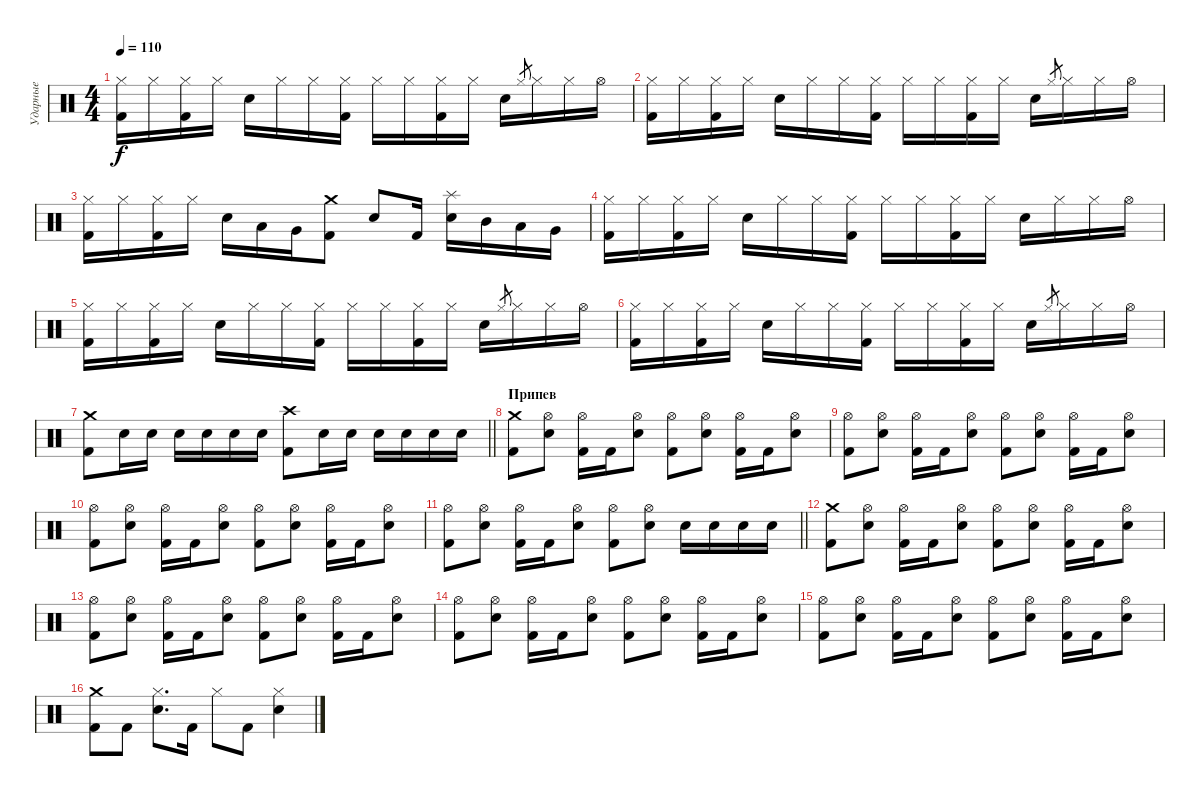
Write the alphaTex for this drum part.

\track ("Ударные" "Ударные") {instrument percussion}
\staff {score}
\articulation defaults
\ts (4 4)
\tempo 110
\clef neutral
\ks c
("Hi-Hat (closed)" "Kick (hit) 2").16{dy f} "Hi-Hat (closed)".16 ("Hi-Hat (closed)" "Kick (hit) 2").16 "Hi-Hat (closed)".16 "Snare (hit) 2".16 "Hi-Hat (closed)".16 "Hi-Hat (closed)".16 ("Hi-Hat (closed)" "Kick (hit) 2").16 "Hi-Hat (closed)".16 "Hi-Hat (closed)".16 ("Hi-Hat (closed)" "Kick (hit) 2").16 "Hi-Hat (closed)".16 "Snare (hit) 2".16 "Hi-Hat (closed)".8{gr} "Hi-Hat (closed)".16 "Hi-Hat (closed)".16 "Hi-Hat (open)".16 |
("Hi-Hat (closed)" "Kick (hit) 2").16 "Hi-Hat (closed)".16 ("Hi-Hat (closed)" "Kick (hit) 2").16 "Hi-Hat (closed)".16 "Snare (hit) 2".16 "Hi-Hat (closed)".16 "Hi-Hat (closed)".16 ("Hi-Hat (closed)" "Kick (hit) 2").16 "Hi-Hat (closed)".16 "Hi-Hat (closed)".16 ("Hi-Hat (closed)" "Kick (hit) 2").16 "Hi-Hat (closed)".16 "Snare (hit) 2".16 "Hi-Hat (closed)".8{gr} "Hi-Hat (closed)".16 "Hi-Hat (closed)".16 "Hi-Hat (open)".16 |
("Hi-Hat (closed)" "Kick (hit) 2").16 "Hi-Hat (closed)".16 ("Hi-Hat (closed)" "Kick (hit) 2").16 "Hi-Hat (closed)".16 "Snare (hit) 2".16 "Low Tom (hit)".16 "Very Low Tom (hit)".16 ("Crash medium (hit)" "Kick (hit) 2").8 "Snare (hit) 2".8 "Kick (hit) 2".16 ("Splash (hit)" "Snare (hit) 2").16 "Mid Tom (hit)".16 "Low Tom (hit)".16 "Very Low Tom (hit)".16 |
("Hi-Hat (closed)" "Kick (hit) 2").16 "Hi-Hat (closed)".16 ("Hi-Hat (closed)" "Kick (hit) 2").16 "Hi-Hat (closed)".16 "Snare (hit) 2".16 "Hi-Hat (closed)".16 "Hi-Hat (closed)".16 ("Hi-Hat (closed)" "Kick (hit) 2").16 "Hi-Hat (closed)".16 "Hi-Hat (closed)".16 ("Hi-Hat (closed)" "Kick (hit) 2").16 "Hi-Hat (closed)".16 "Snare (hit) 2".16 "Hi-Hat (closed)".16 "Hi-Hat (closed)".16 "Hi-Hat (open)".16 |
("Hi-Hat (closed)" "Kick (hit) 2").16 "Hi-Hat (closed)".16 ("Hi-Hat (closed)" "Kick (hit) 2").16 "Hi-Hat (closed)".16 "Snare (hit) 2".16 "Hi-Hat (closed)".16 "Hi-Hat (closed)".16 ("Hi-Hat (closed)" "Kick (hit) 2").16 "Hi-Hat (closed)".16 "Hi-Hat (closed)".16 ("Hi-Hat (closed)" "Kick (hit) 2").16 "Hi-Hat (closed)".16 "Snare (hit) 2".16 "Hi-Hat (closed)".8{gr} "Hi-Hat (closed)".16 "Hi-Hat (closed)".16 "Hi-Hat (open)".16 |
("Hi-Hat (closed)" "Kick (hit) 2").16 "Hi-Hat (closed)".16 ("Hi-Hat (closed)" "Kick (hit) 2").16 "Hi-Hat (closed)".16 "Snare (hit) 2".16 "Hi-Hat (closed)".16 "Hi-Hat (closed)".16 ("Hi-Hat (closed)" "Kick (hit) 2").16 "Hi-Hat (closed)".16 "Hi-Hat (closed)".16 ("Hi-Hat (closed)" "Kick (hit) 2").16 "Hi-Hat (closed)".16 "Snare (hit) 2".16 "Hi-Hat (closed)".8{gr} "Hi-Hat (closed)".16 "Hi-Hat (closed)".16 "Hi-Hat (open)".16 |
\barLineRight lightlight
("Kick (hit) 2" "Crash medium (hit)").8 "Snare (hit) 2".16 "Snare (hit) 2".16 "Snare (hit) 2".16 "Snare (hit) 2".16 "Snare (hit) 2".16 "Snare (hit) 2".16 ("Crash high (hit)" "Kick (hit) 2").8 "Snare (hit) 2".16 "Snare (hit) 2".16 "Snare (hit) 2".16 "Snare (hit) 2".16 "Snare (hit) 2".16 "Snare (hit) 2".16 |
\section ("" "Припев")
("Crash medium (hit)" "Kick (hit) 2").8 ("Hi-Hat (open)" "Snare (hit) 2").8 ("Hi-Hat (open)" "Kick (hit) 2").16 "Kick (hit) 2".16 ("Hi-Hat (open)" "Snare (hit) 2").8 ("Hi-Hat (open)" "Kick (hit) 2").8 ("Hi-Hat (open)" "Snare (hit) 2").8 ("Hi-Hat (open)" "Kick (hit) 2").16 "Kick (hit) 2".16 ("Hi-Hat (open)" "Snare (hit) 2").8 |
("Hi-Hat (open)" "Kick (hit) 2").8 ("Hi-Hat (open)" "Snare (hit) 2").8 ("Hi-Hat (open)" "Kick (hit) 2").16 "Kick (hit) 2".16 ("Hi-Hat (open)" "Snare (hit) 2").8 ("Hi-Hat (open)" "Kick (hit) 2").8 ("Hi-Hat (open)" "Snare (hit) 2").8 ("Hi-Hat (open)" "Kick (hit) 2").16 "Kick (hit) 2".16 ("Hi-Hat (open)" "Snare (hit) 2").8 |
("Hi-Hat (open)" "Kick (hit) 2").8 ("Hi-Hat (open)" "Snare (hit) 2").8 ("Hi-Hat (open)" "Kick (hit) 2").16 "Kick (hit) 2".16 ("Hi-Hat (open)" "Snare (hit) 2").8 ("Hi-Hat (open)" "Kick (hit) 2").8 ("Hi-Hat (open)" "Snare (hit) 2").8 ("Hi-Hat (open)" "Kick (hit) 2").16 "Kick (hit) 2".16 ("Hi-Hat (open)" "Snare (hit) 2").8 |
\barLineRight lightlight
("Hi-Hat (open)" "Kick (hit) 2").8 ("Hi-Hat (open)" "Snare (hit) 2").8 ("Hi-Hat (open)" "Kick (hit) 2").16 "Kick (hit) 2".16 ("Hi-Hat (open)" "Snare (hit) 2").8 ("Hi-Hat (open)" "Kick (hit) 2").8 ("Hi-Hat (open)" "Snare (hit) 2").8 "Snare (hit) 2".16 "Snare (hit) 2".16 "Snare (hit) 2".16 "Snare (hit) 2".16 |
("Crash medium (hit)" "Kick (hit) 2").8 ("Hi-Hat (open)" "Snare (hit) 2").8 ("Hi-Hat (open)" "Kick (hit) 2").16 "Kick (hit) 2".16 ("Hi-Hat (open)" "Snare (hit) 2").8 ("Hi-Hat (open)" "Kick (hit) 2").8 ("Hi-Hat (open)" "Snare (hit) 2").8 ("Hi-Hat (open)" "Kick (hit) 2").16 "Kick (hit) 2".16 ("Hi-Hat (open)" "Snare (hit) 2").8 |
("Hi-Hat (open)" "Kick (hit) 2").8 ("Hi-Hat (open)" "Snare (hit) 2").8 ("Hi-Hat (open)" "Kick (hit) 2").16 "Kick (hit) 2".16 ("Hi-Hat (open)" "Snare (hit) 2").8 ("Hi-Hat (open)" "Kick (hit) 2").8 ("Hi-Hat (open)" "Snare (hit) 2").8 ("Hi-Hat (open)" "Kick (hit) 2").16 "Kick (hit) 2".16 ("Hi-Hat (open)" "Snare (hit) 2").8 |
("Hi-Hat (open)" "Kick (hit) 2").8 ("Hi-Hat (open)" "Snare (hit) 2").8 ("Hi-Hat (open)" "Kick (hit) 2").16 "Kick (hit) 2".16 ("Hi-Hat (open)" "Snare (hit) 2").8 ("Hi-Hat (open)" "Kick (hit) 2").8 ("Hi-Hat (open)" "Snare (hit) 2").8 ("Hi-Hat (open)" "Kick (hit) 2").16 "Kick (hit) 2".16 ("Hi-Hat (open)" "Snare (hit) 2").8 |
("Hi-Hat (open)" "Kick (hit) 2").8 ("Hi-Hat (open)" "Snare (hit) 2").8 ("Hi-Hat (open)" "Kick (hit) 2").16 "Kick (hit) 2".16 ("Hi-Hat (open)" "Snare (hit) 2").8 ("Hi-Hat (open)" "Kick (hit) 2").8 ("Hi-Hat (open)" "Snare (hit) 2").8 ("Hi-Hat (open)" "Kick (hit) 2").16 "Kick (hit) 2".16 ("Hi-Hat (open)" "Snare (hit) 2").8 |
("Crash medium (hit)" "Kick (hit) 2").8 "Kick (hit) 2".8 ("Hi-Hat (closed)" "Snare (hit) 2").8{d} "Kick (hit) 2".16 "Hi-Hat (closed)".8 "Kick (hit) 2".8 ("Hi-Hat (closed)" "Snare (hit) 2").4
